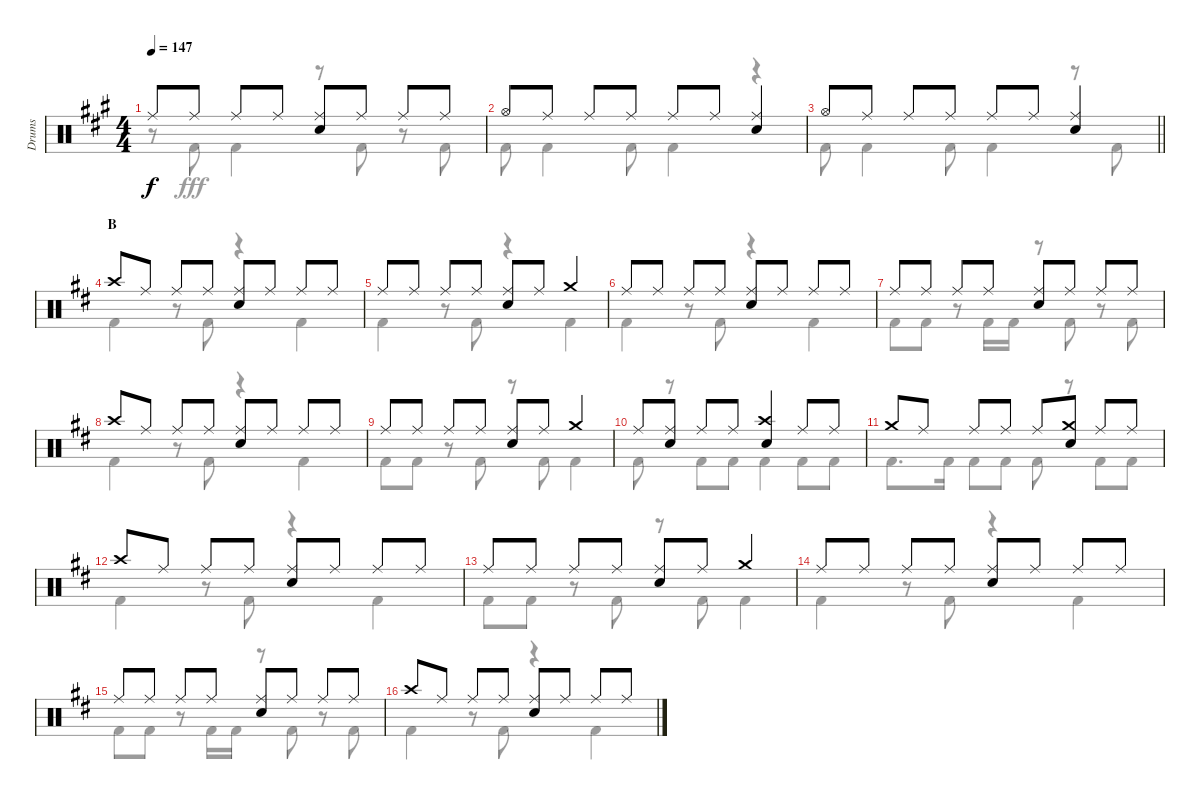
\track ("Drums" "Drums") {instrument percussion}
\staff {score}
\articulation defaults
\voice
\ts (4 4)
\tempo 147
\clef neutral
\ks a "Ride (middle)".8{dy f} "Ride (middle)".8 "Ride (middle)".8 "Ride (middle)".8
("Ride (middle)" "Snare (hit) 2").8 "Ride (middle)".8 "Ride (middle)".8 "Ride (middle)".8 |
"Hi-Hat (open)".8 "Ride (middle)".8 "Ride (middle)".8 "Ride (middle)".8 "Ride (middle)".8 "Ride (middle)".8 ("Ride (middle)" "Snare (hit) 2").4 |
\barLineRight lightlight "Hi-Hat (open)".8 "Ride (middle)".8 "Ride (middle)".8 "Ride (middle)".8 "Ride (middle)".8 "Ride (middle)".8
("Ride (middle)" "Snare (hit) 2").4 |
\section ("" "B")
\ks d "Crash high (hit)".8 "Ride (middle)".8 "Ride (middle)".8 "Ride (middle)".8
("Ride (middle)" "Snare (hit) 2").8 "Ride (middle)".8 "Ride (middle)".8 "Ride (middle)".8 |
"Ride (middle)".8 "Ride (middle)".8 "Ride (middle)".8 "Ride (middle)".8 ("Ride (middle)" "Snare (hit) 2").8 "Ride (middle)".8 "Crash medium (hit)".4 |
"Ride (middle)".8 "Ride (middle)".8 "Ride (middle)".8 "Ride (middle)".8 ("Ride (middle)" "Snare (hit) 2").8 "Ride (middle)".8 "Ride (middle)".8 "Ride (middle)".8 |
"Ride (middle)".8 "Ride (middle)".8 "Ride (middle)".8 "Ride (middle)".8 ("Ride (middle)" "Snare (hit) 2").8 "Ride (middle)".8 "Ride (middle)".8 "Ride (middle)".8 |
"Crash high (hit)".8 "Ride (middle)".8 "Ride (middle)".8 "Ride (middle)".8 ("Ride (middle)" "Snare (hit) 2").8 "Ride (middle)".8 "Ride (middle)".8 "Ride (middle)".8 |
"Ride (middle)".8 "Ride (middle)".8 "Ride (middle)".8 "Ride (middle)".8 ("Ride (middle)" "Snare (hit) 2").8 "Ride (middle)".8 "Crash medium (hit)".4 |
"Ride (middle)".8 ("Ride (middle)" "Snare (hit) 2").8 "Ride (middle)".8 "Ride (middle)".8 ("Crash high (hit)" "Snare (hit) 2").4 "Ride (middle)".8 "Ride (middle)".8 |
"Crash medium (hit)".8 "Ride (middle)".8 "Ride (middle)".8 "Ride (middle)".8 "Ride (middle)".8 ("Crash medium (hit)" "Snare (hit) 2").8 "Ride (middle)".8 "Ride (middle)".8 |
"Crash high (hit)".8 "Ride (middle)".8 "Ride (middle)".8 "Ride (middle)".8 ("Ride (middle)" "Snare (hit) 2").8 "Ride (middle)".8 "Ride (middle)".8 "Ride (middle)".8 |
"Ride (middle)".8 "Ride (middle)".8 "Ride (middle)".8 "Ride (middle)".8 ("Ride (middle)" "Snare (hit) 2").8 "Ride (middle)".8 "Crash medium (hit)".4 |
"Ride (middle)".8 "Ride (middle)".8 "Ride (middle)".8 "Ride (middle)".8 ("Ride (middle)" "Snare (hit) 2").8 "Ride (middle)".8 "Ride (middle)".8 "Ride (middle)".8 |
"Ride (middle)".8 "Ride (middle)".8 "Ride (middle)".8 "Ride (middle)".8 ("Ride (middle)" "Snare (hit) 2").8 "Ride (middle)".8 "Ride (middle)".8 "Ride (middle)".8 |
"Crash high (hit)".8 "Ride (middle)".8 "Ride (middle)".8 "Ride (middle)".8 ("Ride (middle)" "Snare (hit) 2").8 "Ride (middle)".8 "Ride (middle)".8 "Ride (middle)".8
\voice
\clef neutral
\ottava regular
\simile none
\ks a
r.8{dy fff} "Kick (hit) 2".8 "Kick (hit) 2".4 r.8 "Kick (hit) 2".8 r.8 "Kick (hit) 2".8 |
"Kick (hit) 2".8 "Kick (hit) 2".4 "Kick (hit) 2".8 "Kick (hit) 2".4 r.4 |
\barLineRight lightlight "Kick (hit) 2".8 "Kick (hit) 2".4 "Kick (hit) 2".8 "Kick (hit) 2".4
r.8 "Kick (hit) 2".8 |
\ks d "Kick (hit) 2".4
r.8 "Kick (hit) 2".8 r.4 "Kick (hit) 2".4 |
"Kick (hit) 2".4 r.8 "Kick (hit) 2".8 r.4 "Kick (hit) 2".4 |
"Kick (hit) 2".4 r.8 "Kick (hit) 2".8 r.4 "Kick (hit) 2".4 |
"Kick (hit) 2".8 "Kick (hit) 2".8 r.8 "Kick (hit) 2".16 "Kick (hit) 2".16 r.8 "Kick (hit) 2".8 r.8 "Kick (hit) 2".8 |
"Kick (hit) 2".4 r.8 "Kick (hit) 2".8 r.4 "Kick (hit) 2".4 |
"Kick (hit) 2".8 "Kick (hit) 2".8 r.8 "Kick (hit) 2".8 r.8 "Kick (hit) 2".8 "Kick (hit) 2".4 |
"Kick (hit) 2".8 r.8 "Kick (hit) 2".8 "Kick (hit) 2".8 "Kick (hit) 2".4 "Kick (hit) 2".8 "Kick (hit) 2".8 |
"Kick (hit) 2".8{d} "Kick (hit) 2".16 "Kick (hit) 2".8 "Kick (hit) 2".8 "Kick (hit) 2".8 r.8 "Kick (hit) 2".8 "Kick (hit) 2".8 |
"Kick (hit) 2".4 r.8 "Kick (hit) 2".8 r.4 "Kick (hit) 2".4 |
"Kick (hit) 2".8 "Kick (hit) 2".8 r.8 "Kick (hit) 2".8 r.8 "Kick (hit) 2".8 "Kick (hit) 2".4 |
"Kick (hit) 2".4 r.8 "Kick (hit) 2".8 r.4 "Kick (hit) 2".4 |
"Kick (hit) 2".8 "Kick (hit) 2".8 r.8 "Kick (hit) 2".16 "Kick (hit) 2".16 r.8 "Kick (hit) 2".8 r.8 "Kick (hit) 2".8 |
"Kick (hit) 2".4 r.8 "Kick (hit) 2".8 r.4 "Kick (hit) 2".4
